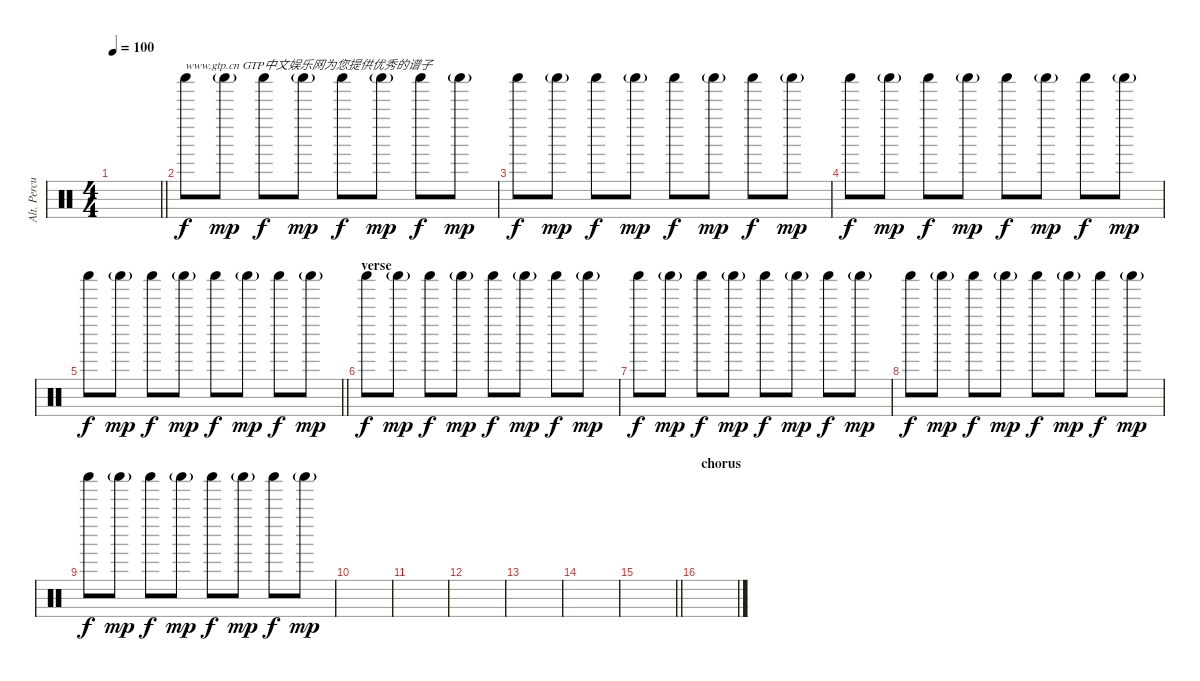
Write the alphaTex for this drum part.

\track ("Alt. Percu" "Alt. Percu") {instrument percussion}
\staff {score}
\articulation defaults
\ts (4 4)
\tempo 100
\clef neutral
\barLineRight lightlight
\ks c
|
"Shaker (hit)".8{txt "www.gtp.cn GTP中文娱乐网为您提供优秀的谱子"} "Shaker (hit)"{g}.8{dy mp} "Shaker (hit)".8{dy f} "Shaker (hit)"{g}.8{dy mp} "Shaker (hit)".8{dy f} "Shaker (hit)"{g}.8{dy mp} "Shaker (hit)".8{dy f} "Shaker (hit)"{g}.8{dy mp} |
"Shaker (hit)".8{dy f} "Shaker (hit)"{g}.8{dy mp} "Shaker (hit)".8{dy f} "Shaker (hit)"{g}.8{dy mp} "Shaker (hit)".8{dy f} "Shaker (hit)"{g}.8{dy mp} "Shaker (hit)".8{dy f} "Shaker (hit)"{g}.8{dy mp} |
"Shaker (hit)".8{dy f} "Shaker (hit)"{g}.8{dy mp} "Shaker (hit)".8{dy f} "Shaker (hit)"{g}.8{dy mp} "Shaker (hit)".8{dy f} "Shaker (hit)"{g}.8{dy mp} "Shaker (hit)".8{dy f} "Shaker (hit)"{g}.8{dy mp} |
\barLineRight lightlight "Shaker (hit)".8{dy f} "Shaker (hit)"{g}.8{dy mp} "Shaker (hit)".8{dy f} "Shaker (hit)"{g}.8{dy mp} "Shaker (hit)".8{dy f} "Shaker (hit)"{g}.8{dy mp} "Shaker (hit)".8{dy f} "Shaker (hit)"{g}.8{dy mp}
|
\section ("" "verse")
"Shaker (hit)".8{dy f} "Shaker (hit)"{g}.8{dy mp} "Shaker (hit)".8{dy f} "Shaker (hit)"{g}.8{dy mp} "Shaker (hit)".8{dy f} "Shaker (hit)"{g}.8{dy mp} "Shaker (hit)".8{dy f} "Shaker (hit)"{g}.8{dy mp} |
"Shaker (hit)".8{dy f} "Shaker (hit)"{g}.8{dy mp} "Shaker (hit)".8{dy f} "Shaker (hit)"{g}.8{dy mp} "Shaker (hit)".8{dy f} "Shaker (hit)"{g}.8{dy mp} "Shaker (hit)".8{dy f} "Shaker (hit)"{g}.8{dy mp} |
"Shaker (hit)".8{dy f} "Shaker (hit)"{g}.8{dy mp} "Shaker (hit)".8{dy f} "Shaker (hit)"{g}.8{dy mp} "Shaker (hit)".8{dy f} "Shaker (hit)"{g}.8{dy mp} "Shaker (hit)".8{dy f} "Shaker (hit)"{g}.8{dy mp} |
"Shaker (hit)".8{dy f} "Shaker (hit)"{g}.8{dy mp} "Shaker (hit)".8{dy f} "Shaker (hit)"{g}.8{dy mp} "Shaker (hit)".8{dy f} "Shaker (hit)"{g}.8{dy mp} "Shaker (hit)".8{dy f} "Shaker (hit)"{g}.8{dy mp} |
|
|
|
|
|
\barLineRight lightlight
|
\section ("" "chorus")
